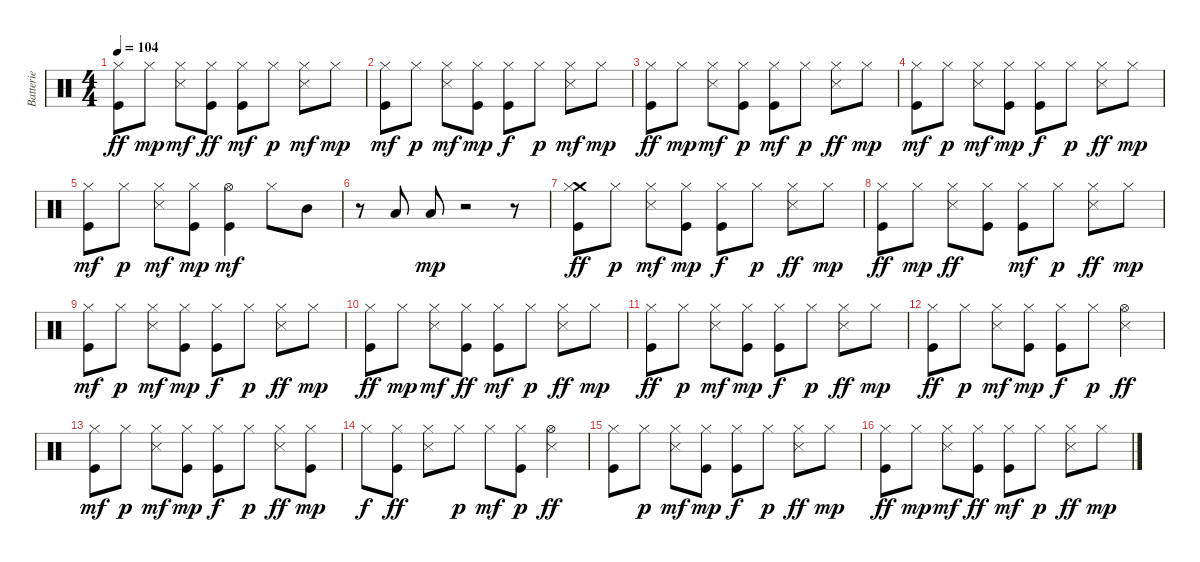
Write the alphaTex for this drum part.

\track ("Batterie" "Batterie") {instrument percussion}
\staff {score}
\articulation defaults
\ts (4 4)
\tempo 104
\clef neutral
\ks c
("Hi-Hat (closed)" "Kick (hit)").8{dy ff} "Hi-Hat (closed)".8{dy mp} ("Snare (side stick) 3" "Hi-Hat (closed)").8{dy mf} ("Hi-Hat (closed)" "Kick (hit)").8{dy ff} ("Hi-Hat (closed)" "Kick (hit)").8{dy mf} "Hi-Hat (closed)".8{dy p} ("Snare (side stick) 3" "Hi-Hat (closed)").8{dy mf} "Hi-Hat (closed)".8{dy mp} |
("Kick (hit)" "Hi-Hat (closed)").8{dy mf} "Hi-Hat (closed)".8{dy p} ("Hi-Hat (closed)" "Snare (side stick) 3").8{dy mf} ("Hi-Hat (closed)" "Kick (hit)").8{dy mp} ("Kick (hit)" "Hi-Hat (closed)").8{dy f} "Hi-Hat (closed)".8{dy p} ("Snare (side stick) 3" "Hi-Hat (closed)").8{dy mf} "Hi-Hat (closed)".8{dy mp} |
("Kick (hit)" "Hi-Hat (closed)").8{dy ff} "Hi-Hat (closed)".8{dy mp} ("Snare (side stick) 3" "Hi-Hat (closed)").8{dy mf} ("Kick (hit)" "Hi-Hat (closed)").8{dy p} ("Hi-Hat (closed)" "Kick (hit)").8{dy mf} "Hi-Hat (closed)".8{dy p} ("Hi-Hat (closed)" "Snare (side stick) 3").8{dy ff} "Hi-Hat (closed)".8{dy mp} |
("Kick (hit)" "Hi-Hat (closed)").8{dy mf} "Hi-Hat (closed)".8{dy p} ("Hi-Hat (closed)" "Snare (side stick) 3").8{dy mf} ("Hi-Hat (closed)" "Kick (hit)").8{dy mp} ("Hi-Hat (closed)" "Kick (hit)").8{dy f} "Hi-Hat (closed)".8{dy p} ("Hi-Hat (closed)" "Snare (side stick) 3").8{dy ff} "Hi-Hat (closed)".8{dy mp} |
("Kick (hit)" "Hi-Hat (closed)").8{dy mf} "Hi-Hat (closed)".8{dy p} ("Hi-Hat (closed)" "Snare (side stick) 3").8{dy mf} ("Hi-Hat (closed)" "Kick (hit)").8{dy mp} ("Hi-Hat (open)" "Kick (hit)").4{dy mf} "Hi-Hat (closed)".8 "Mid Tom (hit)".8 |
r.8 "Low Tom (hit)".8 "Low Tom (hit)".8{dy mp} r.2 r.8 |
("Crash medium (hit)" "Hi-Hat (closed)" "Kick (hit)").8{dy ff} "Hi-Hat (closed)".8{dy p} ("Snare (side stick) 3" "Hi-Hat (closed)").8{dy mf} ("Kick (hit)" "Hi-Hat (closed)").8{dy mp} ("Hi-Hat (closed)" "Kick (hit)").8{dy f} "Hi-Hat (closed)".8{dy p} ("Hi-Hat (closed)" "Snare (side stick) 3").8{dy ff} "Hi-Hat (closed)".8{dy mp} |
("Kick (hit)" "Hi-Hat (closed)").8{dy ff} "Hi-Hat (closed)".8{dy mp} ("Hi-Hat (closed)" "Snare (side stick) 3").8{dy ff} ("Hi-Hat (closed)" "Kick (hit)").8 ("Hi-Hat (closed)" "Kick (hit)").8{dy mf} "Hi-Hat (closed)".8{dy p} ("Hi-Hat (closed)" "Snare (side stick) 3").8{dy ff} "Hi-Hat (closed)".8{dy mp} |
("Kick (hit)" "Hi-Hat (closed)").8{dy mf} "Hi-Hat (closed)".8{dy p} ("Hi-Hat (closed)" "Snare (side stick) 3").8{dy mf} ("Hi-Hat (closed)" "Kick (hit)").8{dy mp} ("Kick (hit)" "Hi-Hat (closed)").8{dy f} "Hi-Hat (closed)".8{dy p} ("Hi-Hat (closed)" "Snare (side stick) 3").8{dy ff} "Hi-Hat (closed)".8{dy mp} |
("Hi-Hat (closed)" "Kick (hit)").8{dy ff} "Hi-Hat (closed)".8{dy mp} ("Snare (side stick) 3" "Hi-Hat (closed)").8{dy mf} ("Hi-Hat (closed)" "Kick (hit)").8{dy ff} ("Kick (hit)" "Hi-Hat (closed)").8{dy mf} "Hi-Hat (closed)".8{dy p} ("Hi-Hat (closed)" "Snare (side stick) 3").8{dy ff} "Hi-Hat (closed)".8{dy mp} |
("Hi-Hat (closed)" "Kick (hit)").8{dy ff} "Hi-Hat (closed)".8{dy p} ("Hi-Hat (closed)" "Snare (side stick) 3").8{dy mf} ("Hi-Hat (closed)" "Kick (hit)").8{dy mp} ("Kick (hit)" "Hi-Hat (closed)").8{dy f} "Hi-Hat (closed)".8{dy p} ("Hi-Hat (closed)" "Snare (side stick) 3").8{dy ff} "Hi-Hat (closed)".8{dy mp} |
("Hi-Hat (closed)" "Kick (hit)").8{dy ff} "Hi-Hat (closed)".8{dy p} ("Snare (side stick) 3" "Hi-Hat (closed)").8{dy mf} ("Hi-Hat (closed)" "Kick (hit)").8{dy mp} ("Kick (hit)" "Hi-Hat (closed)").8{dy f} "Hi-Hat (closed)".8{dy p} ("Hi-Hat (open)" "Snare (side stick) 3").4{dy ff} |
("Kick (hit)" "Hi-Hat (closed)").8{dy mf} "Hi-Hat (closed)".8{dy p} ("Hi-Hat (closed)" "Snare (side stick) 3").8{dy mf} ("Kick (hit)" "Hi-Hat (closed)").8{dy mp} ("Kick (hit)" "Hi-Hat (closed)").8{dy f} "Hi-Hat (closed)".8{dy p} ("Hi-Hat (closed)" "Snare (side stick) 3").8{dy ff} ("Kick (hit)" "Hi-Hat (closed)").8{dy mp} |
"Hi-Hat (closed)".8{dy f} ("Hi-Hat (closed)" "Kick (hit)").8{dy ff} ("Hi-Hat (closed)" "Snare (side stick) 3").8 "Hi-Hat (closed)".8{dy p} "Hi-Hat (closed)".8{dy mf} ("Kick (hit)" "Hi-Hat (closed)").8{dy p} ("Hi-Hat (open)" "Snare (side stick) 3").4{dy ff} |
("Hi-Hat (closed)" "Kick (hit)").8 "Hi-Hat (closed)".8{dy p} ("Hi-Hat (closed)" "Snare (side stick) 3").8{dy mf} ("Hi-Hat (closed)" "Kick (hit)").8{dy mp} ("Hi-Hat (closed)" "Kick (hit)").8{dy f} "Hi-Hat (closed)".8{dy p} ("Hi-Hat (closed)" "Snare (side stick) 3").8{dy ff} "Hi-Hat (closed)".8{dy mp} |
("Kick (hit)" "Hi-Hat (closed)").8{dy ff} "Hi-Hat (closed)".8{dy mp} ("Snare (side stick) 3" "Hi-Hat (closed)").8{dy mf} ("Hi-Hat (closed)" "Kick (hit)").8{dy ff} ("Hi-Hat (closed)" "Kick (hit)").8{dy mf} "Hi-Hat (closed)".8{dy p} ("Hi-Hat (closed)" "Snare (side stick) 3").8{dy ff} "Hi-Hat (closed)".8{dy mp}
